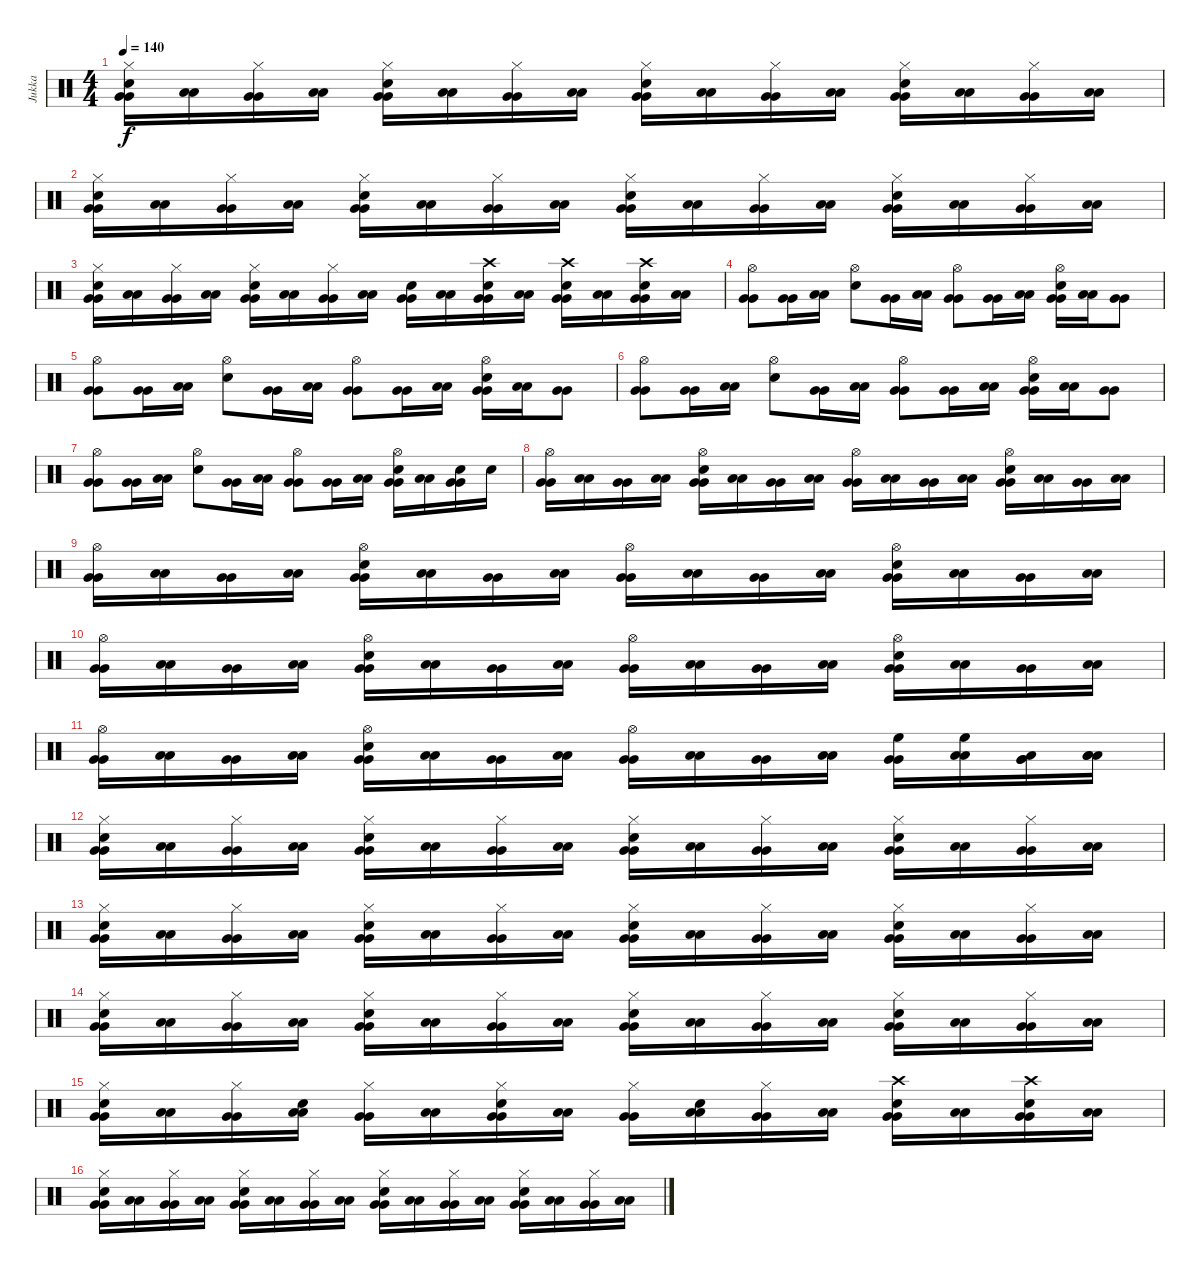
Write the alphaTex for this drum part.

\track ("Jukka" "Jukka") {instrument percussion}
\staff {score}
\articulation defaults
\ts (4 4)
\tempo 140
\clef neutral
\ks c
("Hi-Hat (closed)" "Electric Snare (hit)" "Very Low Tom (hit)" "Very Low Tom (hit)").16{dy f} ("Low Floor Tom (hit)" "Low Floor Tom (hit)").16 ("Hi-Hat (closed)" "Very Low Tom (hit)" "Very Low Tom (hit)").16 ("Low Floor Tom (hit)" "Low Floor Tom (hit)").16 ("Hi-Hat (closed)" "Electric Snare (hit)" "Very Low Tom (hit)" "Very Low Tom (hit)").16 ("Low Floor Tom (hit)" "Low Floor Tom (hit)").16 ("Hi-Hat (closed)" "Very Low Tom (hit)" "Very Low Tom (hit)").16 ("Low Floor Tom (hit)" "Low Floor Tom (hit)").16 ("Hi-Hat (closed)" "Electric Snare (hit)" "Very Low Tom (hit)" "Very Low Tom (hit)").16 ("Low Floor Tom (hit)" "Low Floor Tom (hit)").16 ("Hi-Hat (closed)" "Very Low Tom (hit)" "Very Low Tom (hit)").16 ("Low Floor Tom (hit)" "Low Floor Tom (hit)").16 ("Hi-Hat (closed)" "Electric Snare (hit)" "Very Low Tom (hit)" "Very Low Tom (hit)").16 ("Low Floor Tom (hit)" "Low Floor Tom (hit)").16 ("Hi-Hat (closed)" "Very Low Tom (hit)" "Very Low Tom (hit)").16 ("Low Floor Tom (hit)" "Low Floor Tom (hit)").16 |
("Hi-Hat (closed)" "Electric Snare (hit)" "Very Low Tom (hit)" "Very Low Tom (hit)").16 ("Low Floor Tom (hit)" "Low Floor Tom (hit)").16 ("Hi-Hat (closed)" "Very Low Tom (hit)" "Very Low Tom (hit)").16 ("Low Floor Tom (hit)" "Low Floor Tom (hit)").16 ("Hi-Hat (closed)" "Electric Snare (hit)" "Very Low Tom (hit)" "Very Low Tom (hit)").16 ("Low Floor Tom (hit)" "Low Floor Tom (hit)").16 ("Hi-Hat (closed)" "Very Low Tom (hit)" "Very Low Tom (hit)").16 ("Low Floor Tom (hit)" "Low Floor Tom (hit)").16 ("Hi-Hat (closed)" "Electric Snare (hit)" "Very Low Tom (hit)" "Very Low Tom (hit)").16 ("Low Floor Tom (hit)" "Low Floor Tom (hit)").16 ("Hi-Hat (closed)" "Very Low Tom (hit)" "Very Low Tom (hit)").16 ("Low Floor Tom (hit)" "Low Floor Tom (hit)").16 ("Hi-Hat (closed)" "Electric Snare (hit)" "Very Low Tom (hit)" "Very Low Tom (hit)").16 ("Low Floor Tom (hit)" "Low Floor Tom (hit)").16 ("Hi-Hat (closed)" "Very Low Tom (hit)" "Very Low Tom (hit)").16 ("Low Floor Tom (hit)" "Low Floor Tom (hit)").16 |
("Hi-Hat (closed)" "Electric Snare (hit)" "Very Low Tom (hit)" "Very Low Tom (hit)").16 ("Low Floor Tom (hit)" "Low Floor Tom (hit)").16 ("Hi-Hat (closed)" "Very Low Tom (hit)" "Very Low Tom (hit)").16 ("Low Floor Tom (hit)" "Low Floor Tom (hit)").16 ("Hi-Hat (closed)" "Electric Snare (hit)" "Very Low Tom (hit)" "Very Low Tom (hit)").16 ("Low Floor Tom (hit)" "Low Floor Tom (hit)").16 ("Hi-Hat (closed)" "Very Low Tom (hit)" "Very Low Tom (hit)").16 ("Low Floor Tom (hit)" "Low Floor Tom (hit)").16 ("Electric Snare (hit)" "Very Low Tom (hit)" "Very Low Tom (hit)").16 ("Low Floor Tom (hit)" "Low Floor Tom (hit)").16 ("Crash high (hit)" "Electric Snare (hit)" "Very Low Tom (hit)" "Very Low Tom (hit)").16 ("Low Floor Tom (hit)" "Low Floor Tom (hit)").16 ("Crash high (hit)" "Electric Snare (hit)" "Very Low Tom (hit)" "Very Low Tom (hit)").16 ("Low Floor Tom (hit)" "Low Floor Tom (hit)").16 ("Crash high (hit)" "Electric Snare (hit)" "Very Low Tom (hit)" "Very Low Tom (hit)").16 ("Low Floor Tom (hit)" "Low Floor Tom (hit)").16 |
("Hi-Hat (open)" "Very Low Tom (hit)" "Very Low Tom (hit)").8 ("Very Low Tom (hit)" "Very Low Tom (hit)").16 ("Low Floor Tom (hit)" "Low Floor Tom (hit)").16 ("Hi-Hat (open)" "Electric Snare (hit)").8 ("Very Low Tom (hit)" "Very Low Tom (hit)").16 ("Low Floor Tom (hit)" "Low Floor Tom (hit)").16 ("Hi-Hat (open)" "Very Low Tom (hit)" "Very Low Tom (hit)").8 ("Very Low Tom (hit)" "Very Low Tom (hit)").16 ("Low Floor Tom (hit)" "Low Floor Tom (hit)").16 ("Hi-Hat (open)" "Electric Snare (hit)" "Very Low Tom (hit)" "Very Low Tom (hit)").16 ("Low Floor Tom (hit)" "Low Floor Tom (hit)").16 ("Very Low Tom (hit)" "Very Low Tom (hit)").8 |
("Hi-Hat (open)" "Very Low Tom (hit)" "Very Low Tom (hit)").8 ("Very Low Tom (hit)" "Very Low Tom (hit)").16 ("Low Floor Tom (hit)" "Low Floor Tom (hit)").16 ("Hi-Hat (open)" "Electric Snare (hit)").8 ("Very Low Tom (hit)" "Very Low Tom (hit)").16 ("Low Floor Tom (hit)" "Low Floor Tom (hit)").16 ("Hi-Hat (open)" "Very Low Tom (hit)" "Very Low Tom (hit)").8 ("Very Low Tom (hit)" "Very Low Tom (hit)").16 ("Low Floor Tom (hit)" "Low Floor Tom (hit)").16 ("Hi-Hat (open)" "Electric Snare (hit)" "Very Low Tom (hit)" "Very Low Tom (hit)").16 ("Low Floor Tom (hit)" "Low Floor Tom (hit)").16 ("Very Low Tom (hit)" "Very Low Tom (hit)").8 |
("Hi-Hat (open)" "Very Low Tom (hit)" "Very Low Tom (hit)").8 ("Very Low Tom (hit)" "Very Low Tom (hit)").16 ("Low Floor Tom (hit)" "Low Floor Tom (hit)").16 ("Hi-Hat (open)" "Electric Snare (hit)").8 ("Very Low Tom (hit)" "Very Low Tom (hit)").16 ("Low Floor Tom (hit)" "Low Floor Tom (hit)").16 ("Hi-Hat (open)" "Very Low Tom (hit)" "Very Low Tom (hit)").8 ("Very Low Tom (hit)" "Very Low Tom (hit)").16 ("Low Floor Tom (hit)" "Low Floor Tom (hit)").16 ("Hi-Hat (open)" "Electric Snare (hit)" "Very Low Tom (hit)" "Very Low Tom (hit)").16 ("Low Floor Tom (hit)" "Low Floor Tom (hit)").16 ("Very Low Tom (hit)" "Very Low Tom (hit)").8 |
("Hi-Hat (open)" "Very Low Tom (hit)" "Very Low Tom (hit)").8 ("Very Low Tom (hit)" "Very Low Tom (hit)").16 ("Low Floor Tom (hit)" "Low Floor Tom (hit)").16 ("Hi-Hat (open)" "Electric Snare (hit)").8 ("Very Low Tom (hit)" "Very Low Tom (hit)").16 ("Low Floor Tom (hit)" "Low Floor Tom (hit)").16 ("Hi-Hat (open)" "Very Low Tom (hit)" "Very Low Tom (hit)").8 ("Very Low Tom (hit)" "Very Low Tom (hit)").16 ("Low Floor Tom (hit)" "Low Floor Tom (hit)").16 ("Hi-Hat (open)" "Electric Snare (hit)" "Very Low Tom (hit)" "Very Low Tom (hit)").16 ("Low Floor Tom (hit)" "Low Floor Tom (hit)").16 ("Electric Snare (hit)" "Very Low Tom (hit)" "Very Low Tom (hit)").16 "Electric Snare (hit)".16 |
("Hi-Hat (open)" "Very Low Tom (hit)" "Very Low Tom (hit)").16 ("Low Floor Tom (hit)" "Low Floor Tom (hit)").16 ("Very Low Tom (hit)" "Very Low Tom (hit)").16 ("Low Floor Tom (hit)" "Low Floor Tom (hit)").16 ("Hi-Hat (open)" "Electric Snare (hit)" "Very Low Tom (hit)" "Very Low Tom (hit)").16 ("Low Floor Tom (hit)" "Low Floor Tom (hit)").16 ("Very Low Tom (hit)" "Very Low Tom (hit)").16 ("Low Floor Tom (hit)" "Low Floor Tom (hit)").16 ("Hi-Hat (open)" "Very Low Tom (hit)" "Very Low Tom (hit)").16 ("Low Floor Tom (hit)" "Low Floor Tom (hit)").16 ("Very Low Tom (hit)" "Very Low Tom (hit)").16 ("Low Floor Tom (hit)" "Low Floor Tom (hit)").16 ("Hi-Hat (open)" "Electric Snare (hit)" "Very Low Tom (hit)" "Very Low Tom (hit)").16 ("Low Floor Tom (hit)" "Low Floor Tom (hit)").16 ("Very Low Tom (hit)" "Very Low Tom (hit)").16 ("Low Floor Tom (hit)" "Low Floor Tom (hit)").16 |
("Hi-Hat (open)" "Very Low Tom (hit)" "Very Low Tom (hit)").16 ("Low Floor Tom (hit)" "Low Floor Tom (hit)").16 ("Very Low Tom (hit)" "Very Low Tom (hit)").16 ("Low Floor Tom (hit)" "Low Floor Tom (hit)").16 ("Hi-Hat (open)" "Electric Snare (hit)" "Very Low Tom (hit)" "Very Low Tom (hit)").16 ("Low Floor Tom (hit)" "Low Floor Tom (hit)").16 ("Very Low Tom (hit)" "Very Low Tom (hit)").16 ("Low Floor Tom (hit)" "Low Floor Tom (hit)").16 ("Hi-Hat (open)" "Very Low Tom (hit)" "Very Low Tom (hit)").16 ("Low Floor Tom (hit)" "Low Floor Tom (hit)").16 ("Very Low Tom (hit)" "Very Low Tom (hit)").16 ("Low Floor Tom (hit)" "Low Floor Tom (hit)").16 ("Hi-Hat (open)" "Electric Snare (hit)" "Very Low Tom (hit)" "Very Low Tom (hit)").16 ("Low Floor Tom (hit)" "Low Floor Tom (hit)").16 ("Very Low Tom (hit)" "Very Low Tom (hit)").16 ("Low Floor Tom (hit)" "Low Floor Tom (hit)").16 |
("Hi-Hat (open)" "Very Low Tom (hit)" "Very Low Tom (hit)").16 ("Low Floor Tom (hit)" "Low Floor Tom (hit)").16 ("Very Low Tom (hit)" "Very Low Tom (hit)").16 ("Low Floor Tom (hit)" "Low Floor Tom (hit)").16 ("Hi-Hat (open)" "Electric Snare (hit)" "Very Low Tom (hit)" "Very Low Tom (hit)").16 ("Low Floor Tom (hit)" "Low Floor Tom (hit)").16 ("Very Low Tom (hit)" "Very Low Tom (hit)").16 ("Low Floor Tom (hit)" "Low Floor Tom (hit)").16 ("Hi-Hat (open)" "Very Low Tom (hit)" "Very Low Tom (hit)").16 ("Low Floor Tom (hit)" "Low Floor Tom (hit)").16 ("Very Low Tom (hit)" "Very Low Tom (hit)").16 ("Low Floor Tom (hit)" "Low Floor Tom (hit)").16 ("Hi-Hat (open)" "Electric Snare (hit)" "Very Low Tom (hit)" "Very Low Tom (hit)").16 ("Low Floor Tom (hit)" "Low Floor Tom (hit)").16 ("Very Low Tom (hit)" "Very Low Tom (hit)").16 ("Low Floor Tom (hit)" "Low Floor Tom (hit)").16 |
("Hi-Hat (open)" "Very Low Tom (hit)" "Very Low Tom (hit)").16 ("Low Floor Tom (hit)" "Low Floor Tom (hit)").16 ("Very Low Tom (hit)" "Very Low Tom (hit)").16 ("Low Floor Tom (hit)" "Low Floor Tom (hit)").16 ("Hi-Hat (open)" "Electric Snare (hit)" "Very Low Tom (hit)" "Very Low Tom (hit)").16 ("Low Floor Tom (hit)" "Low Floor Tom (hit)").16 ("Very Low Tom (hit)" "Very Low Tom (hit)").16 ("Low Floor Tom (hit)" "Low Floor Tom (hit)").16 ("Hi-Hat (open)" "Very Low Tom (hit)" "Very Low Tom (hit)").16 ("Low Floor Tom (hit)" "Low Floor Tom (hit)").16 ("Very Low Tom (hit)" "Very Low Tom (hit)").16 ("Low Floor Tom (hit)" "Low Floor Tom (hit)").16 ("High Floor Tom (hit)" "Very Low Tom (hit)" "Very Low Tom (hit)").16 ("High Floor Tom (hit)" "Low Floor Tom (hit)" "Low Floor Tom (hit)").16 ("Low Tom (hit)" "Very Low Tom (hit)" "Very Low Tom (hit)").16 ("Low Tom (hit)" "Low Floor Tom (hit)" "Low Floor Tom (hit)").16 |
("Hi-Hat (closed)" "Electric Snare (hit)" "Very Low Tom (hit)" "Very Low Tom (hit)").16 ("Low Floor Tom (hit)" "Low Floor Tom (hit)").16 ("Hi-Hat (closed)" "Very Low Tom (hit)" "Very Low Tom (hit)").16 ("Low Floor Tom (hit)" "Low Floor Tom (hit)").16 ("Hi-Hat (closed)" "Electric Snare (hit)" "Very Low Tom (hit)" "Very Low Tom (hit)").16 ("Low Floor Tom (hit)" "Low Floor Tom (hit)").16 ("Hi-Hat (closed)" "Very Low Tom (hit)" "Very Low Tom (hit)").16 ("Low Floor Tom (hit)" "Low Floor Tom (hit)").16 ("Hi-Hat (closed)" "Electric Snare (hit)" "Very Low Tom (hit)" "Very Low Tom (hit)").16 ("Low Floor Tom (hit)" "Low Floor Tom (hit)").16 ("Hi-Hat (closed)" "Very Low Tom (hit)" "Very Low Tom (hit)").16 ("Low Floor Tom (hit)" "Low Floor Tom (hit)").16 ("Hi-Hat (closed)" "Electric Snare (hit)" "Very Low Tom (hit)" "Very Low Tom (hit)").16 ("Low Floor Tom (hit)" "Low Floor Tom (hit)").16 ("Hi-Hat (closed)" "Very Low Tom (hit)" "Very Low Tom (hit)").16 ("Low Floor Tom (hit)" "Low Floor Tom (hit)").16 |
("Hi-Hat (closed)" "Electric Snare (hit)" "Very Low Tom (hit)" "Very Low Tom (hit)").16 ("Low Floor Tom (hit)" "Low Floor Tom (hit)").16 ("Hi-Hat (closed)" "Very Low Tom (hit)" "Very Low Tom (hit)").16 ("Low Floor Tom (hit)" "Low Floor Tom (hit)").16 ("Hi-Hat (closed)" "Electric Snare (hit)" "Very Low Tom (hit)" "Very Low Tom (hit)").16 ("Low Floor Tom (hit)" "Low Floor Tom (hit)").16 ("Hi-Hat (closed)" "Very Low Tom (hit)" "Very Low Tom (hit)").16 ("Low Floor Tom (hit)" "Low Floor Tom (hit)").16 ("Hi-Hat (closed)" "Electric Snare (hit)" "Very Low Tom (hit)" "Very Low Tom (hit)").16 ("Low Floor Tom (hit)" "Low Floor Tom (hit)").16 ("Hi-Hat (closed)" "Very Low Tom (hit)" "Very Low Tom (hit)").16 ("Low Floor Tom (hit)" "Low Floor Tom (hit)").16 ("Hi-Hat (closed)" "Electric Snare (hit)" "Very Low Tom (hit)" "Very Low Tom (hit)").16 ("Low Floor Tom (hit)" "Low Floor Tom (hit)").16 ("Hi-Hat (closed)" "Very Low Tom (hit)" "Very Low Tom (hit)").16 ("Low Floor Tom (hit)" "Low Floor Tom (hit)").16 |
("Hi-Hat (closed)" "Electric Snare (hit)" "Very Low Tom (hit)" "Very Low Tom (hit)").16 ("Low Floor Tom (hit)" "Low Floor Tom (hit)").16 ("Hi-Hat (closed)" "Very Low Tom (hit)" "Very Low Tom (hit)").16 ("Low Floor Tom (hit)" "Low Floor Tom (hit)").16 ("Hi-Hat (closed)" "Electric Snare (hit)" "Very Low Tom (hit)" "Very Low Tom (hit)").16 ("Low Floor Tom (hit)" "Low Floor Tom (hit)").16 ("Hi-Hat (closed)" "Very Low Tom (hit)" "Very Low Tom (hit)").16 ("Low Floor Tom (hit)" "Low Floor Tom (hit)").16 ("Hi-Hat (closed)" "Electric Snare (hit)" "Very Low Tom (hit)" "Very Low Tom (hit)").16 ("Low Floor Tom (hit)" "Low Floor Tom (hit)").16 ("Hi-Hat (closed)" "Very Low Tom (hit)" "Very Low Tom (hit)").16 ("Low Floor Tom (hit)" "Low Floor Tom (hit)").16 ("Hi-Hat (closed)" "Electric Snare (hit)" "Very Low Tom (hit)" "Very Low Tom (hit)").16 ("Low Floor Tom (hit)" "Low Floor Tom (hit)").16 ("Hi-Hat (closed)" "Very Low Tom (hit)" "Very Low Tom (hit)").16 ("Low Floor Tom (hit)" "Low Floor Tom (hit)").16 |
("Hi-Hat (closed)" "Electric Snare (hit)" "Very Low Tom (hit)" "Very Low Tom (hit)").16 ("Low Floor Tom (hit)" "Low Floor Tom (hit)").16 ("Hi-Hat (closed)" "Very Low Tom (hit)" "Very Low Tom (hit)").16 ("Electric Snare (hit)" "Low Floor Tom (hit)" "Low Floor Tom (hit)").16 ("Hi-Hat (closed)" "Very Low Tom (hit)" "Very Low Tom (hit)").16 ("Low Floor Tom (hit)" "Low Floor Tom (hit)").16 ("Hi-Hat (closed)" "Electric Snare (hit)" "Very Low Tom (hit)" "Very Low Tom (hit)").16 ("Low Floor Tom (hit)" "Low Floor Tom (hit)").16 ("Hi-Hat (closed)" "Very Low Tom (hit)" "Very Low Tom (hit)").16 ("Electric Snare (hit)" "Low Floor Tom (hit)" "Low Floor Tom (hit)").16 ("Hi-Hat (closed)" "Very Low Tom (hit)" "Very Low Tom (hit)").16 ("Low Floor Tom (hit)" "Low Floor Tom (hit)").16 ("Crash high (hit)" "Electric Snare (hit)" "Very Low Tom (hit)" "Very Low Tom (hit)").16 ("Low Floor Tom (hit)" "Low Floor Tom (hit)").16 ("Crash high (hit)" "Electric Snare (hit)" "Very Low Tom (hit)" "Very Low Tom (hit)").16 ("Low Floor Tom (hit)" "Low Floor Tom (hit)").16 |
("Hi-Hat (closed)" "Electric Snare (hit)" "Very Low Tom (hit)" "Very Low Tom (hit)").16 ("Low Floor Tom (hit)" "Low Floor Tom (hit)").16 ("Hi-Hat (closed)" "Very Low Tom (hit)" "Very Low Tom (hit)").16 ("Low Floor Tom (hit)" "Low Floor Tom (hit)").16 ("Hi-Hat (closed)" "Electric Snare (hit)" "Very Low Tom (hit)" "Very Low Tom (hit)").16 ("Low Floor Tom (hit)" "Low Floor Tom (hit)").16 ("Hi-Hat (closed)" "Very Low Tom (hit)" "Very Low Tom (hit)").16 ("Low Floor Tom (hit)" "Low Floor Tom (hit)").16 ("Hi-Hat (closed)" "Electric Snare (hit)" "Very Low Tom (hit)" "Very Low Tom (hit)").16 ("Low Floor Tom (hit)" "Low Floor Tom (hit)").16 ("Hi-Hat (closed)" "Very Low Tom (hit)" "Very Low Tom (hit)").16 ("Low Floor Tom (hit)" "Low Floor Tom (hit)").16 ("Hi-Hat (closed)" "Electric Snare (hit)" "Very Low Tom (hit)" "Very Low Tom (hit)").16 ("Low Floor Tom (hit)" "Low Floor Tom (hit)").16 ("Hi-Hat (closed)" "Very Low Tom (hit)" "Very Low Tom (hit)").16 ("Low Floor Tom (hit)" "Low Floor Tom (hit)").16
